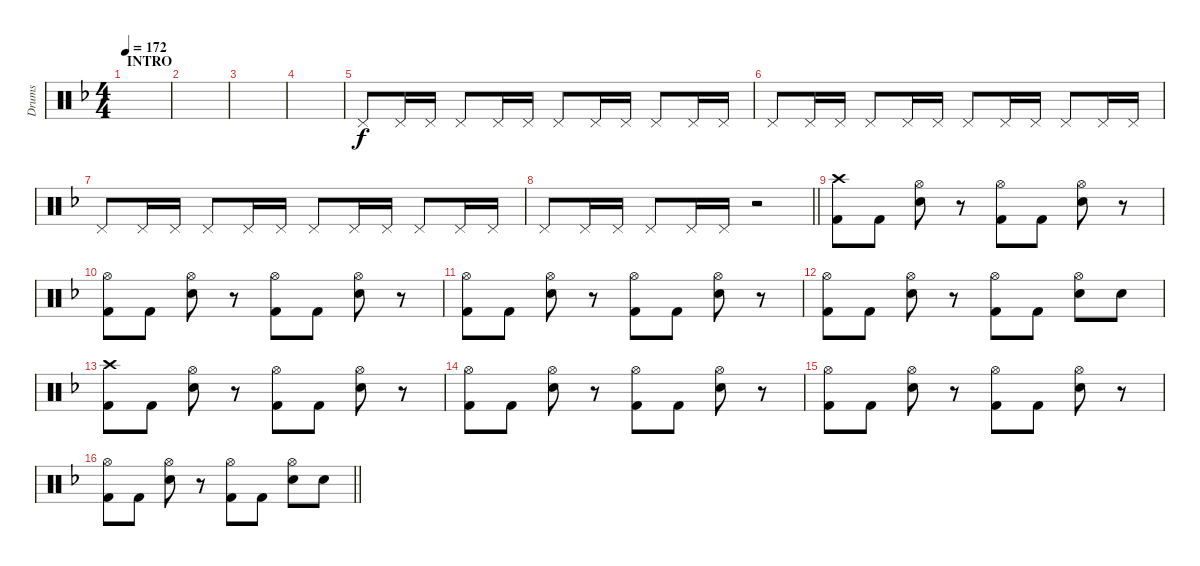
\track ("Drums" "Drums") {instrument percussion}
\staff {score}
\articulation defaults
\ts (4 4)
\section ("" "INTRO")
\tempo 172
\clef neutral
\ks f
|
|
|
|
"Pedal Hi-Hat (hit)".8 "Pedal Hi-Hat (hit)".16 "Pedal Hi-Hat (hit)".16 "Pedal Hi-Hat (hit)".8 "Pedal Hi-Hat (hit)".16 "Pedal Hi-Hat (hit)".16 "Pedal Hi-Hat (hit)".8 "Pedal Hi-Hat (hit)".16 "Pedal Hi-Hat (hit)".16 "Pedal Hi-Hat (hit)".8 "Pedal Hi-Hat (hit)".16 "Pedal Hi-Hat (hit)".16 |
"Pedal Hi-Hat (hit)".8 "Pedal Hi-Hat (hit)".16 "Pedal Hi-Hat (hit)".16 "Pedal Hi-Hat (hit)".8 "Pedal Hi-Hat (hit)".16 "Pedal Hi-Hat (hit)".16 "Pedal Hi-Hat (hit)".8 "Pedal Hi-Hat (hit)".16 "Pedal Hi-Hat (hit)".16 "Pedal Hi-Hat (hit)".8 "Pedal Hi-Hat (hit)".16 "Pedal Hi-Hat (hit)".16 |
"Pedal Hi-Hat (hit)".8 "Pedal Hi-Hat (hit)".16 "Pedal Hi-Hat (hit)".16 "Pedal Hi-Hat (hit)".8 "Pedal Hi-Hat (hit)".16 "Pedal Hi-Hat (hit)".16 "Pedal Hi-Hat (hit)".8 "Pedal Hi-Hat (hit)".16 "Pedal Hi-Hat (hit)".16 "Pedal Hi-Hat (hit)".8 "Pedal Hi-Hat (hit)".16 "Pedal Hi-Hat (hit)".16 |
\barLineRight lightlight "Pedal Hi-Hat (hit)".8 "Pedal Hi-Hat (hit)".16 "Pedal Hi-Hat (hit)".16 "Pedal Hi-Hat (hit)".8 "Pedal Hi-Hat (hit)".16 "Pedal Hi-Hat (hit)".16
r.2 |
\section ("" "")
("Crash high (hit)" "Kick (hit) 2").8 "Kick (hit) 2".8 ("Hi-Hat (open)" "Electric Snare (hit)").8 r.8 ("Hi-Hat (open)" "Kick (hit) 2").8 "Kick (hit) 2".8 ("Hi-Hat (open)" "Electric Snare (hit)").8 r.8 |
("Hi-Hat (open)" "Kick (hit) 2").8 "Kick (hit) 2".8 ("Hi-Hat (open)" "Electric Snare (hit)").8 r.8 ("Hi-Hat (open)" "Kick (hit) 2").8 "Kick (hit) 2".8 ("Hi-Hat (open)" "Electric Snare (hit)").8 r.8 |
("Hi-Hat (open)" "Kick (hit) 2").8 "Kick (hit) 2".8 ("Hi-Hat (open)" "Electric Snare (hit)").8 r.8 ("Hi-Hat (open)" "Kick (hit) 2").8 "Kick (hit) 2".8 ("Hi-Hat (open)" "Electric Snare (hit)").8 r.8 |
("Hi-Hat (open)" "Kick (hit) 2").8 "Kick (hit) 2".8 ("Hi-Hat (open)" "Electric Snare (hit)").8 r.8 ("Hi-Hat (open)" "Kick (hit) 2").8 "Kick (hit) 2".8 ("Hi-Hat (open)" "Electric Snare (hit)").8 "Electric Snare (hit)".8 |
("Crash high (hit)" "Kick (hit) 2").8 "Kick (hit) 2".8 ("Hi-Hat (open)" "Electric Snare (hit)").8 r.8 ("Hi-Hat (open)" "Kick (hit) 2").8 "Kick (hit) 2".8 ("Hi-Hat (open)" "Electric Snare (hit)").8 r.8 |
("Hi-Hat (open)" "Kick (hit) 2").8 "Kick (hit) 2".8 ("Hi-Hat (open)" "Electric Snare (hit)").8 r.8 ("Hi-Hat (open)" "Kick (hit) 2").8 "Kick (hit) 2".8 ("Hi-Hat (open)" "Electric Snare (hit)").8 r.8 |
("Hi-Hat (open)" "Kick (hit) 2").8 "Kick (hit) 2".8 ("Hi-Hat (open)" "Electric Snare (hit)").8 r.8 ("Hi-Hat (open)" "Kick (hit) 2").8 "Kick (hit) 2".8 ("Hi-Hat (open)" "Electric Snare (hit)").8 r.8 |
\barLineRight lightlight
("Hi-Hat (open)" "Kick (hit) 2").8 "Kick (hit) 2".8 ("Hi-Hat (open)" "Electric Snare (hit)").8 r.8 ("Hi-Hat (open)" "Kick (hit) 2").8 "Kick (hit) 2".8 ("Hi-Hat (open)" "Electric Snare (hit)").8 "Electric Snare (hit)".8
